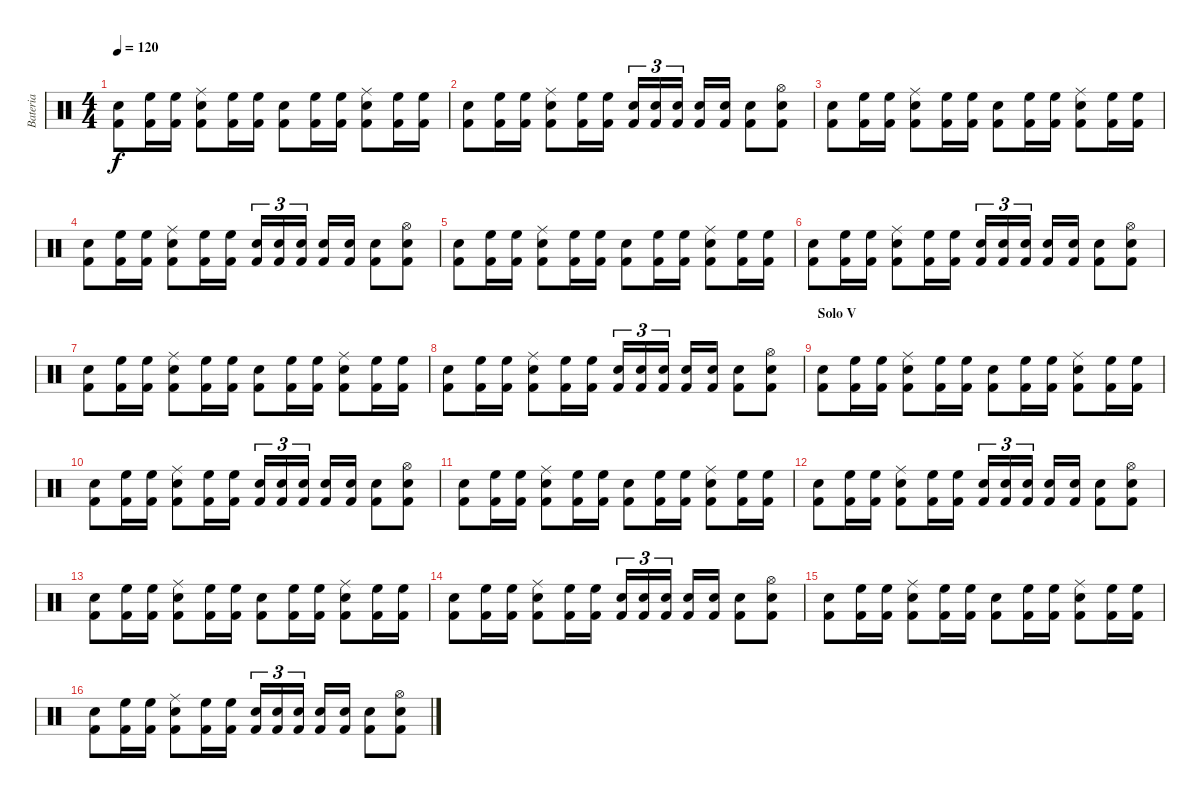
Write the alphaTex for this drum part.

\track ("Bateria" "Bateria") {instrument percussion}
\staff {score}
\articulation defaults
\ts (4 4)
\tempo 120
\clef neutral
\ks c
("Snare (hit) 2" "Kick (hit) 2").8{dy f} ("High Floor Tom (hit)" "Kick (hit) 2").16 ("High Floor Tom (hit)" "Kick (hit) 2").16 ("Ride (middle)" "Snare (hit) 2" "Kick (hit) 2").8 ("High Floor Tom (hit)" "Kick (hit) 2").16 ("High Floor Tom (hit)" "Kick (hit) 2").16 ("Snare (hit) 2" "Kick (hit) 2").8 ("High Floor Tom (hit)" "Kick (hit) 2").16 ("High Floor Tom (hit)" "Kick (hit) 2").16 ("Ride (middle)" "Snare (hit) 2" "Kick (hit) 2").8 ("High Floor Tom (hit)" "Kick (hit) 2").16 ("High Floor Tom (hit)" "Kick (hit) 2").16 |
("Snare (hit) 2" "Kick (hit) 2").8 ("High Floor Tom (hit)" "Kick (hit) 2").16 ("High Floor Tom (hit)" "Kick (hit) 2").16 ("Ride (middle)" "Snare (hit) 2" "Kick (hit) 2").8 ("High Floor Tom (hit)" "Kick (hit) 2").16 ("High Floor Tom (hit)" "Kick (hit) 2").16 ("Snare (hit) 2" "Kick (hit) 2").16{tu (3 2)} ("Snare (hit) 2" "Kick (hit) 2").16{tu (3 2)} ("Snare (hit) 2" "Kick (hit) 2").16{tu (3 2)} ("Snare (hit) 2" "Kick (hit) 2").16 ("Snare (hit) 2" "Kick (hit) 2").16 ("Snare (hit) 2" "Kick (hit) 2").8 ("Hi-Hat (open)" "Snare (hit) 2" "Kick (hit) 2").8 |
("Snare (hit) 2" "Kick (hit) 2").8 ("High Floor Tom (hit)" "Kick (hit) 2").16 ("High Floor Tom (hit)" "Kick (hit) 2").16 ("Ride (middle)" "Snare (hit) 2" "Kick (hit) 2").8 ("High Floor Tom (hit)" "Kick (hit) 2").16 ("High Floor Tom (hit)" "Kick (hit) 2").16 ("Snare (hit) 2" "Kick (hit) 2").8 ("High Floor Tom (hit)" "Kick (hit) 2").16 ("High Floor Tom (hit)" "Kick (hit) 2").16 ("Ride (middle)" "Snare (hit) 2" "Kick (hit) 2").8 ("High Floor Tom (hit)" "Kick (hit) 2").16 ("High Floor Tom (hit)" "Kick (hit) 2").16 |
("Snare (hit) 2" "Kick (hit) 2").8 ("High Floor Tom (hit)" "Kick (hit) 2").16 ("High Floor Tom (hit)" "Kick (hit) 2").16 ("Ride (middle)" "Snare (hit) 2" "Kick (hit) 2").8 ("High Floor Tom (hit)" "Kick (hit) 2").16 ("High Floor Tom (hit)" "Kick (hit) 2").16 ("Snare (hit) 2" "Kick (hit) 2").16{tu (3 2)} ("Snare (hit) 2" "Kick (hit) 2").16{tu (3 2)} ("Snare (hit) 2" "Kick (hit) 2").16{tu (3 2)} ("Snare (hit) 2" "Kick (hit) 2").16 ("Snare (hit) 2" "Kick (hit) 2").16 ("Snare (hit) 2" "Kick (hit) 2").8 ("Hi-Hat (open)" "Snare (hit) 2" "Kick (hit) 2").8 |
("Snare (hit) 2" "Kick (hit) 2").8 ("High Floor Tom (hit)" "Kick (hit) 2").16 ("High Floor Tom (hit)" "Kick (hit) 2").16 ("Ride (middle)" "Snare (hit) 2" "Kick (hit) 2").8 ("High Floor Tom (hit)" "Kick (hit) 2").16 ("High Floor Tom (hit)" "Kick (hit) 2").16 ("Snare (hit) 2" "Kick (hit) 2").8 ("High Floor Tom (hit)" "Kick (hit) 2").16 ("High Floor Tom (hit)" "Kick (hit) 2").16 ("Ride (middle)" "Snare (hit) 2" "Kick (hit) 2").8 ("High Floor Tom (hit)" "Kick (hit) 2").16 ("High Floor Tom (hit)" "Kick (hit) 2").16 |
("Snare (hit) 2" "Kick (hit) 2").8 ("High Floor Tom (hit)" "Kick (hit) 2").16 ("High Floor Tom (hit)" "Kick (hit) 2").16 ("Ride (middle)" "Snare (hit) 2" "Kick (hit) 2").8 ("High Floor Tom (hit)" "Kick (hit) 2").16 ("High Floor Tom (hit)" "Kick (hit) 2").16 ("Snare (hit) 2" "Kick (hit) 2").16{tu (3 2)} ("Snare (hit) 2" "Kick (hit) 2").16{tu (3 2)} ("Snare (hit) 2" "Kick (hit) 2").16{tu (3 2)} ("Snare (hit) 2" "Kick (hit) 2").16 ("Snare (hit) 2" "Kick (hit) 2").16 ("Snare (hit) 2" "Kick (hit) 2").8 ("Hi-Hat (open)" "Snare (hit) 2" "Kick (hit) 2").8 |
("Snare (hit) 2" "Kick (hit) 2").8 ("High Floor Tom (hit)" "Kick (hit) 2").16 ("High Floor Tom (hit)" "Kick (hit) 2").16 ("Ride (middle)" "Snare (hit) 2" "Kick (hit) 2").8 ("High Floor Tom (hit)" "Kick (hit) 2").16 ("High Floor Tom (hit)" "Kick (hit) 2").16 ("Snare (hit) 2" "Kick (hit) 2").8 ("High Floor Tom (hit)" "Kick (hit) 2").16 ("High Floor Tom (hit)" "Kick (hit) 2").16 ("Ride (middle)" "Snare (hit) 2" "Kick (hit) 2").8 ("High Floor Tom (hit)" "Kick (hit) 2").16 ("High Floor Tom (hit)" "Kick (hit) 2").16 |
("Snare (hit) 2" "Kick (hit) 2").8 ("High Floor Tom (hit)" "Kick (hit) 2").16 ("High Floor Tom (hit)" "Kick (hit) 2").16 ("Ride (middle)" "Snare (hit) 2" "Kick (hit) 2").8 ("High Floor Tom (hit)" "Kick (hit) 2").16 ("High Floor Tom (hit)" "Kick (hit) 2").16 ("Snare (hit) 2" "Kick (hit) 2").16{tu (3 2)} ("Snare (hit) 2" "Kick (hit) 2").16{tu (3 2)} ("Snare (hit) 2" "Kick (hit) 2").16{tu (3 2)} ("Snare (hit) 2" "Kick (hit) 2").16 ("Snare (hit) 2" "Kick (hit) 2").16 ("Snare (hit) 2" "Kick (hit) 2").8 ("Hi-Hat (open)" "Snare (hit) 2" "Kick (hit) 2").8 |
\section ("" "Solo V")
("Snare (hit) 2" "Kick (hit) 2").8 ("High Floor Tom (hit)" "Kick (hit) 2").16 ("High Floor Tom (hit)" "Kick (hit) 2").16 ("Ride (middle)" "Snare (hit) 2" "Kick (hit) 2").8 ("High Floor Tom (hit)" "Kick (hit) 2").16 ("High Floor Tom (hit)" "Kick (hit) 2").16 ("Snare (hit) 2" "Kick (hit) 2").8 ("High Floor Tom (hit)" "Kick (hit) 2").16 ("High Floor Tom (hit)" "Kick (hit) 2").16 ("Ride (middle)" "Snare (hit) 2" "Kick (hit) 2").8 ("High Floor Tom (hit)" "Kick (hit) 2").16 ("High Floor Tom (hit)" "Kick (hit) 2").16 |
("Snare (hit) 2" "Kick (hit) 2").8 ("High Floor Tom (hit)" "Kick (hit) 2").16 ("High Floor Tom (hit)" "Kick (hit) 2").16 ("Ride (middle)" "Snare (hit) 2" "Kick (hit) 2").8 ("High Floor Tom (hit)" "Kick (hit) 2").16 ("High Floor Tom (hit)" "Kick (hit) 2").16 ("Snare (hit) 2" "Kick (hit) 2").16{tu (3 2)} ("Snare (hit) 2" "Kick (hit) 2").16{tu (3 2)} ("Snare (hit) 2" "Kick (hit) 2").16{tu (3 2)} ("Snare (hit) 2" "Kick (hit) 2").16 ("Snare (hit) 2" "Kick (hit) 2").16 ("Snare (hit) 2" "Kick (hit) 2").8 ("Hi-Hat (open)" "Snare (hit) 2" "Kick (hit) 2").8 |
("Snare (hit) 2" "Kick (hit) 2").8 ("High Floor Tom (hit)" "Kick (hit) 2").16 ("High Floor Tom (hit)" "Kick (hit) 2").16 ("Ride (middle)" "Snare (hit) 2" "Kick (hit) 2").8 ("High Floor Tom (hit)" "Kick (hit) 2").16 ("High Floor Tom (hit)" "Kick (hit) 2").16 ("Snare (hit) 2" "Kick (hit) 2").8 ("High Floor Tom (hit)" "Kick (hit) 2").16 ("High Floor Tom (hit)" "Kick (hit) 2").16 ("Ride (middle)" "Snare (hit) 2" "Kick (hit) 2").8 ("High Floor Tom (hit)" "Kick (hit) 2").16 ("High Floor Tom (hit)" "Kick (hit) 2").16 |
("Snare (hit) 2" "Kick (hit) 2").8 ("High Floor Tom (hit)" "Kick (hit) 2").16 ("High Floor Tom (hit)" "Kick (hit) 2").16 ("Ride (middle)" "Snare (hit) 2" "Kick (hit) 2").8 ("High Floor Tom (hit)" "Kick (hit) 2").16 ("High Floor Tom (hit)" "Kick (hit) 2").16 ("Snare (hit) 2" "Kick (hit) 2").16{tu (3 2)} ("Snare (hit) 2" "Kick (hit) 2").16{tu (3 2)} ("Snare (hit) 2" "Kick (hit) 2").16{tu (3 2)} ("Snare (hit) 2" "Kick (hit) 2").16 ("Snare (hit) 2" "Kick (hit) 2").16 ("Snare (hit) 2" "Kick (hit) 2").8 ("Hi-Hat (open)" "Snare (hit) 2" "Kick (hit) 2").8 |
("Snare (hit) 2" "Kick (hit) 2").8 ("High Floor Tom (hit)" "Kick (hit) 2").16 ("High Floor Tom (hit)" "Kick (hit) 2").16 ("Ride (middle)" "Snare (hit) 2" "Kick (hit) 2").8 ("High Floor Tom (hit)" "Kick (hit) 2").16 ("High Floor Tom (hit)" "Kick (hit) 2").16 ("Snare (hit) 2" "Kick (hit) 2").8 ("High Floor Tom (hit)" "Kick (hit) 2").16 ("High Floor Tom (hit)" "Kick (hit) 2").16 ("Ride (middle)" "Snare (hit) 2" "Kick (hit) 2").8 ("High Floor Tom (hit)" "Kick (hit) 2").16 ("High Floor Tom (hit)" "Kick (hit) 2").16 |
("Snare (hit) 2" "Kick (hit) 2").8 ("High Floor Tom (hit)" "Kick (hit) 2").16 ("High Floor Tom (hit)" "Kick (hit) 2").16 ("Ride (middle)" "Snare (hit) 2" "Kick (hit) 2").8 ("High Floor Tom (hit)" "Kick (hit) 2").16 ("High Floor Tom (hit)" "Kick (hit) 2").16 ("Snare (hit) 2" "Kick (hit) 2").16{tu (3 2)} ("Snare (hit) 2" "Kick (hit) 2").16{tu (3 2)} ("Snare (hit) 2" "Kick (hit) 2").16{tu (3 2)} ("Snare (hit) 2" "Kick (hit) 2").16 ("Snare (hit) 2" "Kick (hit) 2").16 ("Snare (hit) 2" "Kick (hit) 2").8 ("Hi-Hat (open)" "Snare (hit) 2" "Kick (hit) 2").8 |
("Snare (hit) 2" "Kick (hit) 2").8 ("High Floor Tom (hit)" "Kick (hit) 2").16 ("High Floor Tom (hit)" "Kick (hit) 2").16 ("Ride (middle)" "Snare (hit) 2" "Kick (hit) 2").8 ("High Floor Tom (hit)" "Kick (hit) 2").16 ("High Floor Tom (hit)" "Kick (hit) 2").16 ("Snare (hit) 2" "Kick (hit) 2").8 ("High Floor Tom (hit)" "Kick (hit) 2").16 ("High Floor Tom (hit)" "Kick (hit) 2").16 ("Ride (middle)" "Snare (hit) 2" "Kick (hit) 2").8 ("High Floor Tom (hit)" "Kick (hit) 2").16 ("High Floor Tom (hit)" "Kick (hit) 2").16 |
("Snare (hit) 2" "Kick (hit) 2").8 ("High Floor Tom (hit)" "Kick (hit) 2").16 ("High Floor Tom (hit)" "Kick (hit) 2").16 ("Ride (middle)" "Snare (hit) 2" "Kick (hit) 2").8 ("High Floor Tom (hit)" "Kick (hit) 2").16 ("High Floor Tom (hit)" "Kick (hit) 2").16 ("Snare (hit) 2" "Kick (hit) 2").16{tu (3 2)} ("Snare (hit) 2" "Kick (hit) 2").16{tu (3 2)} ("Snare (hit) 2" "Kick (hit) 2").16{tu (3 2)} ("Snare (hit) 2" "Kick (hit) 2").16 ("Snare (hit) 2" "Kick (hit) 2").16 ("Snare (hit) 2" "Kick (hit) 2").8 ("Hi-Hat (open)" "Snare (hit) 2" "Kick (hit) 2").8
